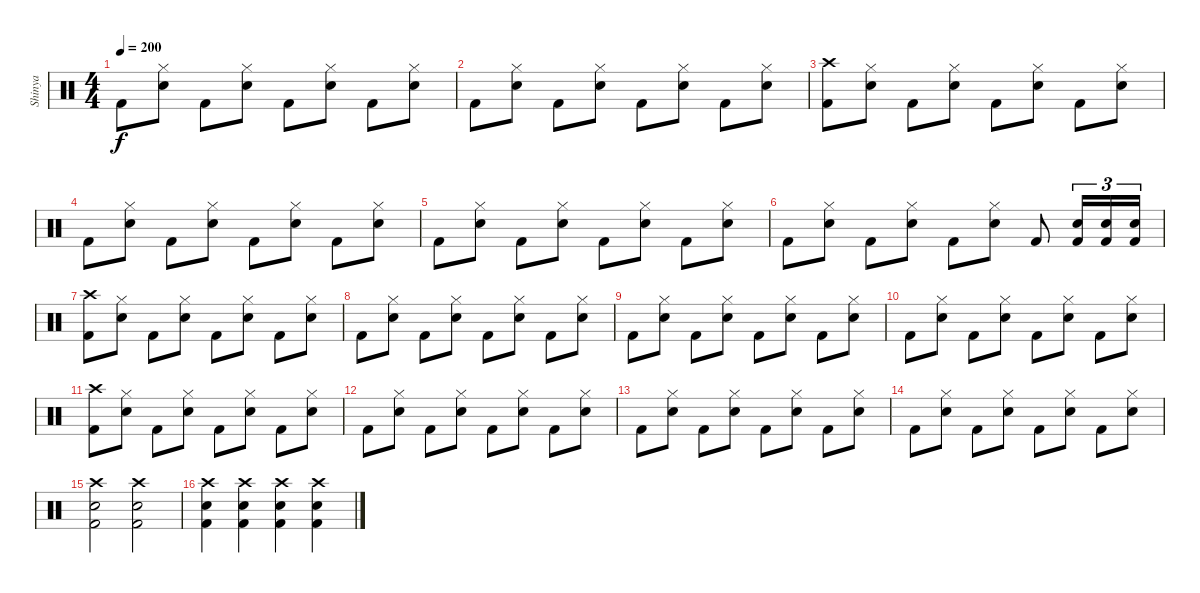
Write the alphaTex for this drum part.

\track ("Shinya" "Shinya") {instrument percussion}
\staff {score}
\articulation defaults
\ts (4 4)
\tempo 200
\clef neutral
\ks c "Kick (hit) 2".8{dy f}
("Hi-Hat (closed)" "Electric Snare (hit)").8 "Kick (hit) 2".8 ("Hi-Hat (closed)" "Electric Snare (hit)").8 "Kick (hit) 2".8 ("Hi-Hat (closed)" "Electric Snare (hit)").8 "Kick (hit) 2".8 ("Hi-Hat (closed)" "Electric Snare (hit)").8 |
"Kick (hit) 2".8 ("Hi-Hat (closed)" "Electric Snare (hit)").8 "Kick (hit) 2".8 ("Hi-Hat (closed)" "Electric Snare (hit)").8 "Kick (hit) 2".8 ("Hi-Hat (closed)" "Electric Snare (hit)").8 "Kick (hit) 2".8 ("Hi-Hat (closed)" "Electric Snare (hit)").8 |
("Crash high (hit)" "Kick (hit) 2").8 ("Hi-Hat (closed)" "Electric Snare (hit)").8 "Kick (hit) 2".8 ("Hi-Hat (closed)" "Electric Snare (hit)").8 "Kick (hit) 2".8 ("Hi-Hat (closed)" "Electric Snare (hit)").8 "Kick (hit) 2".8 ("Hi-Hat (closed)" "Electric Snare (hit)").8 |
"Kick (hit) 2".8 ("Hi-Hat (closed)" "Electric Snare (hit)").8 "Kick (hit) 2".8 ("Hi-Hat (closed)" "Electric Snare (hit)").8 "Kick (hit) 2".8 ("Hi-Hat (closed)" "Electric Snare (hit)").8 "Kick (hit) 2".8 ("Hi-Hat (closed)" "Electric Snare (hit)").8 |
"Kick (hit) 2".8 ("Hi-Hat (closed)" "Electric Snare (hit)").8 "Kick (hit) 2".8 ("Hi-Hat (closed)" "Electric Snare (hit)").8 "Kick (hit) 2".8 ("Hi-Hat (closed)" "Electric Snare (hit)").8 "Kick (hit) 2".8 ("Hi-Hat (closed)" "Electric Snare (hit)").8 |
"Kick (hit) 2".8 ("Hi-Hat (closed)" "Electric Snare (hit)").8 "Kick (hit) 2".8 ("Hi-Hat (closed)" "Electric Snare (hit)").8 "Kick (hit) 2".8 ("Hi-Hat (closed)" "Electric Snare (hit)").8 "Kick (hit) 2".8 ("Electric Snare (hit)" "Kick (hit) 2").16{tu (3 2)} ("Electric Snare (hit)" "Kick (hit) 2").16{tu (3 2)} ("Electric Snare (hit)" "Kick (hit) 2").16{tu (3 2)} |
("Crash high (hit)" "Kick (hit) 2").8 ("Hi-Hat (closed)" "Electric Snare (hit)").8 "Kick (hit) 2".8 ("Hi-Hat (closed)" "Electric Snare (hit)").8 "Kick (hit) 2".8 ("Hi-Hat (closed)" "Electric Snare (hit)").8 "Kick (hit) 2".8 ("Hi-Hat (closed)" "Electric Snare (hit)").8 |
"Kick (hit) 2".8 ("Hi-Hat (closed)" "Electric Snare (hit)").8 "Kick (hit) 2".8 ("Hi-Hat (closed)" "Electric Snare (hit)").8 "Kick (hit) 2".8 ("Hi-Hat (closed)" "Electric Snare (hit)").8 "Kick (hit) 2".8 ("Hi-Hat (closed)" "Electric Snare (hit)").8 |
"Kick (hit) 2".8 ("Hi-Hat (closed)" "Electric Snare (hit)").8 "Kick (hit) 2".8 ("Hi-Hat (closed)" "Electric Snare (hit)").8 "Kick (hit) 2".8 ("Hi-Hat (closed)" "Electric Snare (hit)").8 "Kick (hit) 2".8 ("Hi-Hat (closed)" "Electric Snare (hit)").8 |
"Kick (hit) 2".8 ("Hi-Hat (closed)" "Electric Snare (hit)").8 "Kick (hit) 2".8 ("Hi-Hat (closed)" "Electric Snare (hit)").8 "Kick (hit) 2".8 ("Hi-Hat (closed)" "Electric Snare (hit)").8 "Kick (hit) 2".8 ("Hi-Hat (closed)" "Electric Snare (hit)").8 |
("Crash high (hit)" "Kick (hit) 2").8 ("Hi-Hat (closed)" "Electric Snare (hit)").8 "Kick (hit) 2".8 ("Hi-Hat (closed)" "Electric Snare (hit)").8 "Kick (hit) 2".8 ("Hi-Hat (closed)" "Electric Snare (hit)").8 "Kick (hit) 2".8 ("Hi-Hat (closed)" "Electric Snare (hit)").8 |
"Kick (hit) 2".8 ("Hi-Hat (closed)" "Electric Snare (hit)").8 "Kick (hit) 2".8 ("Hi-Hat (closed)" "Electric Snare (hit)").8 "Kick (hit) 2".8 ("Hi-Hat (closed)" "Electric Snare (hit)").8 "Kick (hit) 2".8 ("Hi-Hat (closed)" "Electric Snare (hit)").8 |
"Kick (hit) 2".8 ("Hi-Hat (closed)" "Electric Snare (hit)").8 "Kick (hit) 2".8 ("Hi-Hat (closed)" "Electric Snare (hit)").8 "Kick (hit) 2".8 ("Hi-Hat (closed)" "Electric Snare (hit)").8 "Kick (hit) 2".8 ("Hi-Hat (closed)" "Electric Snare (hit)").8 |
"Kick (hit) 2".8 ("Hi-Hat (closed)" "Electric Snare (hit)").8 "Kick (hit) 2".8 ("Hi-Hat (closed)" "Electric Snare (hit)").8 "Kick (hit) 2".8 ("Hi-Hat (closed)" "Electric Snare (hit)").8 "Kick (hit) 2".8 ("Hi-Hat (closed)" "Electric Snare (hit)").8 |
("Crash high (hit)" "Electric Snare (hit)" "Kick (hit) 2").2 ("Crash high (hit)" "Electric Snare (hit)" "Kick (hit) 2").2 |
("Crash high (hit)" "Electric Snare (hit)" "Kick (hit) 2").4 ("Crash high (hit)" "Electric Snare (hit)" "Kick (hit) 2").4 ("Crash high (hit)" "Electric Snare (hit)" "Kick (hit) 2").4 ("Crash high (hit)" "Electric Snare (hit)" "Kick (hit) 2").4
